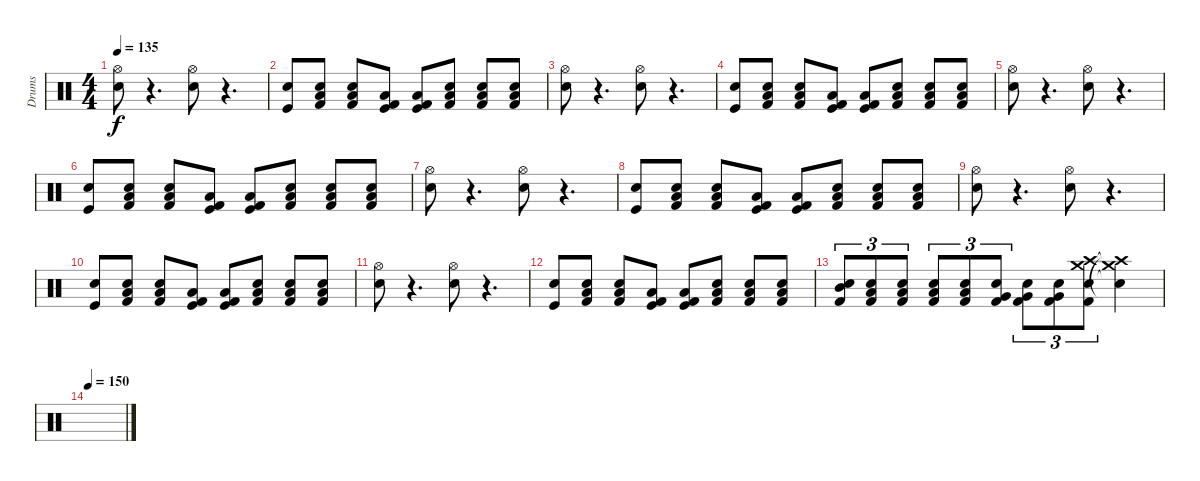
\track ("Drums" "Drums") {instrument percussion}
\staff {score}
\articulation defaults
\ts (4 4)
\tempo 135
\clef neutral
\ks c
("Hi-Hat (open)" "Snare (hit) 2").8{dy f} r.4{d} ("Hi-Hat (open)" "Snare (hit) 2").8 r.4{d} |
("Snare (hit) 2" "Kick (hit)").8 ("Low Tom (hit)" "Kick (hit) 2" "Electric Snare (hit)").8 ("Low Tom (hit)" "Kick (hit) 2" "Electric Snare (hit)").8 ("Low Tom (hit)" "Kick (hit) 2" "Kick (hit)").8 ("Low Tom (hit)" "Kick (hit) 2" "Kick (hit)").8 ("Low Tom (hit)" "Kick (hit) 2" "Snare (hit) 2").8 ("Low Tom (hit)" "Kick (hit) 2" "Snare (hit) 2").8 ("Low Tom (hit)" "Kick (hit) 2" "Snare (hit) 2").8 |
("Hi-Hat (open)" "Snare (hit) 2").8 r.4{d} ("Hi-Hat (open)" "Snare (hit) 2").8 r.4{d} |
("Snare (hit) 2" "Kick (hit)").8 ("Low Tom (hit)" "Kick (hit) 2" "Electric Snare (hit)").8 ("Low Tom (hit)" "Kick (hit) 2" "Electric Snare (hit)").8 ("Low Tom (hit)" "Kick (hit) 2" "Kick (hit)").8 ("Low Tom (hit)" "Kick (hit) 2" "Kick (hit)").8 ("Low Tom (hit)" "Kick (hit) 2" "Snare (hit) 2").8 ("Low Tom (hit)" "Kick (hit) 2" "Snare (hit) 2").8 ("Low Tom (hit)" "Kick (hit) 2" "Snare (hit) 2").8 |
("Hi-Hat (open)" "Snare (hit) 2").8 r.4{d} ("Hi-Hat (open)" "Snare (hit) 2").8 r.4{d} |
("Snare (hit) 2" "Kick (hit)").8 ("Low Tom (hit)" "Kick (hit) 2" "Electric Snare (hit)").8 ("Low Tom (hit)" "Kick (hit) 2" "Electric Snare (hit)").8 ("Low Tom (hit)" "Kick (hit) 2" "Kick (hit)").8 ("Low Tom (hit)" "Kick (hit) 2" "Kick (hit)").8 ("Low Tom (hit)" "Kick (hit) 2" "Snare (hit) 2").8 ("Low Tom (hit)" "Kick (hit) 2" "Snare (hit) 2").8 ("Low Tom (hit)" "Kick (hit) 2" "Snare (hit) 2").8 |
("Hi-Hat (open)" "Snare (hit) 2").8 r.4{d} ("Hi-Hat (open)" "Snare (hit) 2").8 r.4{d} |
("Snare (hit) 2" "Kick (hit)").8 ("Low Tom (hit)" "Kick (hit) 2" "Electric Snare (hit)").8 ("Low Tom (hit)" "Kick (hit) 2" "Electric Snare (hit)").8 ("Low Tom (hit)" "Kick (hit) 2" "Kick (hit)").8 ("Low Tom (hit)" "Kick (hit) 2" "Kick (hit)").8 ("Low Tom (hit)" "Kick (hit) 2" "Snare (hit) 2").8 ("Low Tom (hit)" "Kick (hit) 2" "Snare (hit) 2").8 ("Low Tom (hit)" "Kick (hit) 2" "Snare (hit) 2").8 |
("Hi-Hat (open)" "Snare (hit) 2").8 r.4{d} ("Hi-Hat (open)" "Snare (hit) 2").8 r.4{d} |
("Snare (hit) 2" "Kick (hit)").8 ("Low Tom (hit)" "Kick (hit) 2" "Electric Snare (hit)").8 ("Low Tom (hit)" "Kick (hit) 2" "Electric Snare (hit)").8 ("Low Tom (hit)" "Kick (hit) 2" "Kick (hit)").8 ("Low Tom (hit)" "Kick (hit) 2" "Kick (hit)").8 ("Low Tom (hit)" "Kick (hit) 2" "Snare (hit) 2").8 ("Low Tom (hit)" "Kick (hit) 2" "Snare (hit) 2").8 ("Low Tom (hit)" "Kick (hit) 2" "Snare (hit) 2").8 |
("Hi-Hat (open)" "Snare (hit) 2").8 r.4{d} ("Hi-Hat (open)" "Snare (hit) 2").8 r.4{d} |
("Snare (hit) 2" "Kick (hit)").8 ("Low Tom (hit)" "Kick (hit) 2" "Electric Snare (hit)").8 ("Low Tom (hit)" "Kick (hit) 2" "Electric Snare (hit)").8 ("Low Tom (hit)" "Kick (hit) 2" "Kick (hit)").8 ("Low Tom (hit)" "Kick (hit) 2" "Kick (hit)").8 ("Low Tom (hit)" "Kick (hit) 2" "Snare (hit) 2").8 ("Low Tom (hit)" "Kick (hit) 2" "Snare (hit) 2").8 ("Low Tom (hit)" "Kick (hit) 2" "Snare (hit) 2").8 |
("Mid Tom (hit)" "Kick (hit) 2" "Snare (hit) 2").8{tu (3 2)} ("Low Tom (hit)" "Kick (hit) 2" "Snare (hit) 2").8{tu (3 2)} ("Low Tom (hit)" "Kick (hit) 2" "Snare (hit) 2").8{tu (3 2)} ("Low Tom (hit)" "Kick (hit) 2" "Snare (hit) 2").8{tu (3 2)} ("Low Tom (hit)" "Kick (hit) 2" "Snare (hit) 2").8{tu (3 2)} ("Very Low Tom (hit)" "Kick (hit) 2" "Snare (hit) 2").8{tu (3 2)} ("Very Low Tom (hit)" "Kick (hit) 2" "Snare (hit) 2").8{tu (3 2)} ("Very Low Tom (hit)" "Kick (hit) 2" "Snare (hit) 2").8{tu (3 2)} ("Snare (hit) 2" "Crash medium (hit)" "Kick (hit) 2" "Crash high (hit)").8{tu (3 2)} ("Snare (hit) 2"{t} "Crash medium (hit)"{t} "Crash high (hit)"{t}).4 |
\tempo 150
